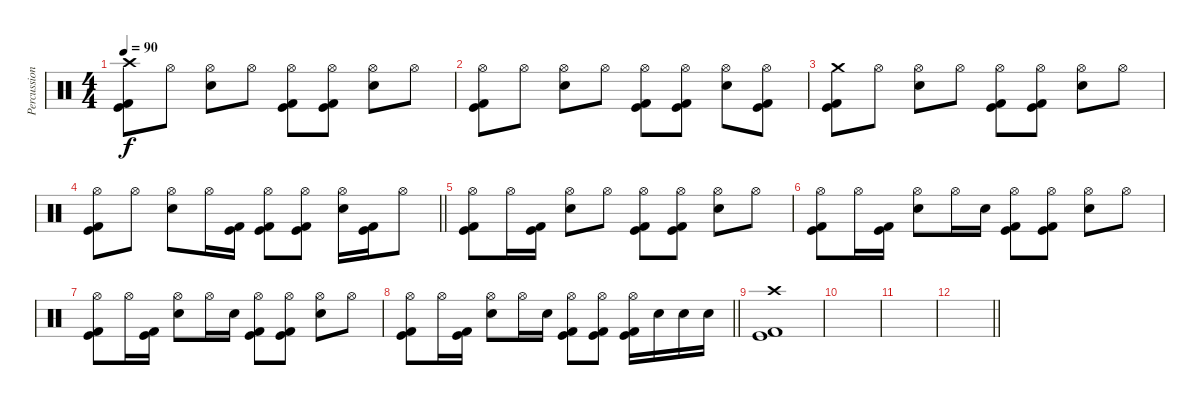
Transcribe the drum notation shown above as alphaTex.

\track ("Percussion" "Percussion") {instrument percussion}
\staff {score}
\articulation defaults
\ts (4 4)
\tempo 90
\clef neutral
\ks c
("Crash high (hit)" "Kick (hit)" "Kick (hit) 2").8{dy f} "Hi-Hat (open)".8 ("Hi-Hat (open)" "Electric Snare (hit)").8 "Hi-Hat (open)".8 ("Hi-Hat (open)" "Kick (hit)" "Kick (hit) 2").8 ("Hi-Hat (open)" "Kick (hit)" "Kick (hit) 2").8 ("Hi-Hat (open)" "Electric Snare (hit)").8 "Hi-Hat (open)".8 |
("Hi-Hat (open)" "Kick (hit)" "Kick (hit) 2").8 "Hi-Hat (open)".8 ("Hi-Hat (open)" "Electric Snare (hit)").8 "Hi-Hat (open)".8 ("Hi-Hat (open)" "Kick (hit)" "Kick (hit) 2").8 ("Hi-Hat (open)" "Kick (hit)" "Kick (hit) 2").8 ("Hi-Hat (open)" "Electric Snare (hit)").8 ("Hi-Hat (open)" "Kick (hit)" "Kick (hit) 2").8 |
("Crash medium (hit)" "Kick (hit)" "Kick (hit) 2").8 "Hi-Hat (open)".8 ("Hi-Hat (open)" "Electric Snare (hit)").8 "Hi-Hat (open)".8 ("Hi-Hat (open)" "Kick (hit)" "Kick (hit) 2").8 ("Hi-Hat (open)" "Kick (hit)" "Kick (hit) 2").8 ("Hi-Hat (open)" "Electric Snare (hit)").8 "Hi-Hat (open)".8 |
\barLineRight lightlight
("Hi-Hat (open)" "Kick (hit)" "Kick (hit) 2").8 "Hi-Hat (open)".8 ("Hi-Hat (open)" "Electric Snare (hit)").8 "Hi-Hat (open)".16 ("Kick (hit)" "Kick (hit) 2").16 ("Hi-Hat (open)" "Kick (hit)" "Kick (hit) 2").8 ("Hi-Hat (open)" "Kick (hit)" "Kick (hit) 2").8 ("Hi-Hat (open)" "Electric Snare (hit)").16 ("Kick (hit)" "Kick (hit) 2").16 "Hi-Hat (open)".8 |
\section ("" "")
("Hi-Hat (open)" "Kick (hit)" "Kick (hit) 2").8 "Hi-Hat (open)".16 ("Kick (hit)" "Kick (hit) 2").16 ("Hi-Hat (open)" "Electric Snare (hit)").8 "Hi-Hat (open)".8 ("Hi-Hat (open)" "Kick (hit)" "Kick (hit) 2").8 ("Hi-Hat (open)" "Kick (hit)" "Kick (hit) 2").8 ("Hi-Hat (open)" "Electric Snare (hit)").8 "Hi-Hat (open)".8 |
("Hi-Hat (open)" "Kick (hit)" "Kick (hit) 2").8 "Hi-Hat (open)".16 ("Kick (hit)" "Kick (hit) 2").16 ("Hi-Hat (open)" "Electric Snare (hit)").8 "Hi-Hat (open)".16 "Electric Snare (hit)".16 ("Hi-Hat (open)" "Kick (hit)" "Kick (hit) 2").8 ("Hi-Hat (open)" "Kick (hit)" "Kick (hit) 2").8 ("Hi-Hat (open)" "Electric Snare (hit)").8 "Hi-Hat (open)".8 |
("Hi-Hat (open)" "Kick (hit)" "Kick (hit) 2").8 "Hi-Hat (open)".16 ("Kick (hit)" "Kick (hit) 2").16 ("Hi-Hat (open)" "Electric Snare (hit)").8 "Hi-Hat (open)".16 "Electric Snare (hit)".16 ("Hi-Hat (open)" "Kick (hit)" "Kick (hit) 2").8 ("Hi-Hat (open)" "Kick (hit)" "Kick (hit) 2").8 ("Hi-Hat (open)" "Electric Snare (hit)").8 "Hi-Hat (open)".8 |
\barLineRight lightlight
("Hi-Hat (open)" "Kick (hit)" "Kick (hit) 2").8 "Hi-Hat (open)".16 ("Kick (hit)" "Kick (hit) 2").16 ("Hi-Hat (open)" "Electric Snare (hit)").8 "Hi-Hat (open)".16 "Electric Snare (hit)".16 ("Hi-Hat (open)" "Kick (hit)" "Kick (hit) 2").8 ("Hi-Hat (open)" "Kick (hit)" "Kick (hit) 2").8 ("Hi-Hat (open)" "Kick (hit)" "Kick (hit) 2").16 "Electric Snare (hit)".16 "Electric Snare (hit)".16 "Electric Snare (hit)".16 |
("Crash high (hit)" "Kick (hit)" "Kick (hit) 2").1 |
|
|
\barLineRight lightlight
